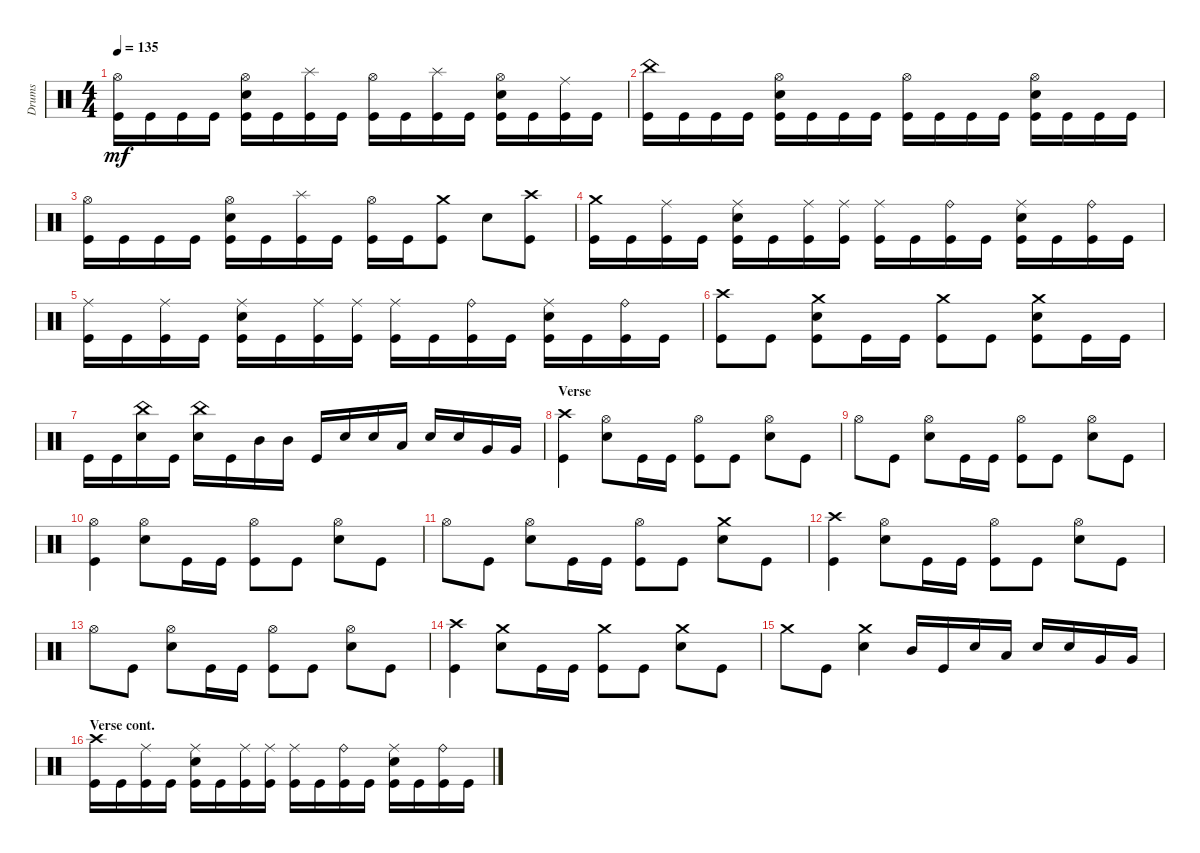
\track ("Drums" "Drums") {instrument percussion}
\staff {score}
\articulation defaults
\ts (4 4)
\tempo 135
\clef neutral
\ks aminor
("Hi-Hat (open)" "Kick (hit)").16{dy mf} "Kick (hit)".16 "Kick (hit)".16 "Kick (hit)".16 ("Kick (hit)" "Snare (hit) 2" "Hi-Hat (open)").16 "Kick (hit)".16 ("Kick (hit)" "Splash (hit)").16 "Kick (hit)".16 ("Kick (hit)" "Hi-Hat (open)").16 "Kick (hit)".16 ("Splash (hit)" "Kick (hit)").16 "Kick (hit)".16 ("Snare (hit) 2" "Hi-Hat (open)" "Kick (hit)").16 "Kick (hit)".16 ("Kick (hit)" "Ride (middle)").16 "Kick (hit)".16 |
("Kick (hit)" "China (hit)").16 "Kick (hit)".16 "Kick (hit)".16 "Kick (hit)".16 ("Snare (hit) 2" "Hi-Hat (open)" "Kick (hit)").16 "Kick (hit)".16 "Kick (hit)".16 "Kick (hit)".16 ("Kick (hit)" "Hi-Hat (open)").16 "Kick (hit)".16 "Kick (hit)".16 "Kick (hit)".16 ("Kick (hit)" "Hi-Hat (open)" "Snare (hit) 2").16 "Kick (hit)".16 "Kick (hit)".16 "Kick (hit)".16 |
("Kick (hit)" "Hi-Hat (open)").16 "Kick (hit)".16 "Kick (hit)".16 "Kick (hit)".16 ("Snare (hit) 2" "Kick (hit)" "Hi-Hat (open)").16 "Kick (hit)".16 ("Kick (hit)" "Splash (hit)").16 "Kick (hit)".16 ("Kick (hit)" "Hi-Hat (open)").16 "Kick (hit)".16 ("Crash medium (hit)" "Kick (hit)").8 "Snare (hit) 2".8 ("Crash high (hit)" "Kick (hit)").8 |
("Kick (hit)" "Crash medium (hit)").16 "Kick (hit)".16 ("Ride (middle)" "Kick (hit)").16 "Kick (hit)".16 ("Kick (hit)" "Snare (hit) 2" "Ride (middle)").16 "Kick (hit)".16 ("Ride (middle)" "Kick (hit)").16 ("Ride (middle)" "Kick (hit)").16 ("Kick (hit)" "Ride (middle)").16 "Kick (hit)".16 ("Kick (hit)" "Ride (bell)").16 "Kick (hit)".16 ("Ride (middle)" "Kick (hit)" "Snare (hit) 2").16 "Kick (hit)".16 ("Kick (hit)" "Ride (bell)").16 "Kick (hit)".16 |
("Kick (hit)" "Ride (middle)").16 "Kick (hit)".16 ("Kick (hit)" "Ride (middle)").16 "Kick (hit)".16 ("Snare (hit) 2" "Ride (middle)" "Kick (hit)").16 "Kick (hit)".16 ("Kick (hit)" "Ride (middle)").16 ("Ride (middle)" "Kick (hit)").16 ("Ride (middle)" "Kick (hit)").16 "Kick (hit)".16 ("Ride (bell)" "Kick (hit)").16 "Kick (hit)".16 ("Snare (hit) 2" "Ride (middle)" "Kick (hit)").16 "Kick (hit)".16 ("Ride (bell)" "Kick (hit)").16 "Kick (hit)".16 |
("Crash high (hit)" "Kick (hit)").8 "Kick (hit)".8 ("Crash medium (hit)" "Snare (hit) 2" "Kick (hit)").8 "Kick (hit)".16 "Kick (hit)".16 ("Kick (hit)" "Crash medium (hit)").8 "Kick (hit)".8 ("Snare (hit) 2" "Crash medium (hit)" "Kick (hit)").8 "Kick (hit)".16 "Kick (hit)".16 |
"Kick (hit)".16 "Kick (hit)".16 ("China (hit)" "Snare (hit) 2").16 "Kick (hit)".16 ("Snare (hit) 2" "China (hit)").16 "Kick (hit)".16 "Mid Tom (hit)".16 "Mid Tom (hit)".16 "Kick (hit)".16 "Snare (hit) 2".16 "Snare (hit) 2".16 "Low Tom (hit)".16 "Snare (hit) 2".16 "Snare (hit) 2".16 "Very Low Tom (hit)".16 "Very Low Tom (hit)".16 |
\section ("" "Verse")
("Kick (hit)" "Crash high (hit)").4 ("Hi-Hat (open)" "Snare (hit) 2").8 "Kick (hit)".16 "Kick (hit)".16 ("Kick (hit)" "Hi-Hat (open)").8 "Kick (hit)".8 ("Hi-Hat (open)" "Snare (hit) 2").8 "Kick (hit)".8 |
"Hi-Hat (open)".8 "Kick (hit)".8 ("Snare (hit) 2" "Hi-Hat (open)").8 "Kick (hit)".16 "Kick (hit)".16 ("Hi-Hat (open)" "Kick (hit)").8 "Kick (hit)".8 ("Hi-Hat (open)" "Snare (hit) 2").8 "Kick (hit)".8 |
("Kick (hit)" "Hi-Hat (open)").4 ("Snare (hit) 2" "Hi-Hat (open)").8 "Kick (hit)".16 "Kick (hit)".16 ("Kick (hit)" "Hi-Hat (open)").8 "Kick (hit)".8 ("Hi-Hat (open)" "Snare (hit) 2").8 "Kick (hit)".8 |
"Hi-Hat (open)".8 "Kick (hit)".8 ("Snare (hit) 2" "Hi-Hat (open)").8 "Kick (hit)".16 "Kick (hit)".16 ("Kick (hit)" "Hi-Hat (open)").8 "Kick (hit)".8 ("Crash medium (hit)" "Snare (hit) 2").8 "Kick (hit)".8 |
("Crash high (hit)" "Kick (hit)").4 ("Snare (hit) 2" "Hi-Hat (open)").8 "Kick (hit)".16 "Kick (hit)".16 ("Kick (hit)" "Hi-Hat (open)").8 "Kick (hit)".8 ("Snare (hit) 2" "Hi-Hat (open)").8 "Kick (hit)".8 |
"Hi-Hat (open)".8 "Kick (hit)".8 ("Hi-Hat (open)" "Snare (hit) 2").8 "Kick (hit)".16 "Kick (hit)".16 ("Kick (hit)" "Hi-Hat (open)").8 "Kick (hit)".8 ("Snare (hit) 2" "Hi-Hat (open)").8 "Kick (hit)".8 |
("Crash high (hit)" "Kick (hit)").4 ("Snare (hit) 2" "Crash medium (hit)").8 "Kick (hit)".16 "Kick (hit)".16 ("Kick (hit)" "Crash medium (hit)").8 "Kick (hit)".8 ("Crash medium (hit)" "Snare (hit) 2").8 "Kick (hit)".8 |
"Crash medium (hit)".8 "Kick (hit)".8 ("Snare (hit) 2" "Crash medium (hit)").4 "Mid Tom (hit)".16 "Kick (hit)".16 "Snare (hit) 2".16 "Low Tom (hit)".16 "Snare (hit) 2".16 "Snare (hit) 2".16 "Very Low Tom (hit)".16 "Very Low Tom (hit)".16 |
\section ("" "Verse cont.")
("Crash high (hit)" "Kick (hit)").16 "Kick (hit)".16 ("Kick (hit)" "Ride (middle)").16 "Kick (hit)".16 ("Snare (hit) 2" "Ride (middle)" "Kick (hit)").16 "Kick (hit)".16 ("Ride (middle)" "Kick (hit)").16 ("Ride (middle)" "Kick (hit)").16 ("Kick (hit)" "Ride (middle)").16 "Kick (hit)".16 ("Kick (hit)" "Ride (bell)").16 "Kick (hit)".16 ("Ride (middle)" "Kick (hit)" "Snare (hit) 2").16 "Kick (hit)".16 ("Kick (hit)" "Ride (bell)").16 "Kick (hit)".16
